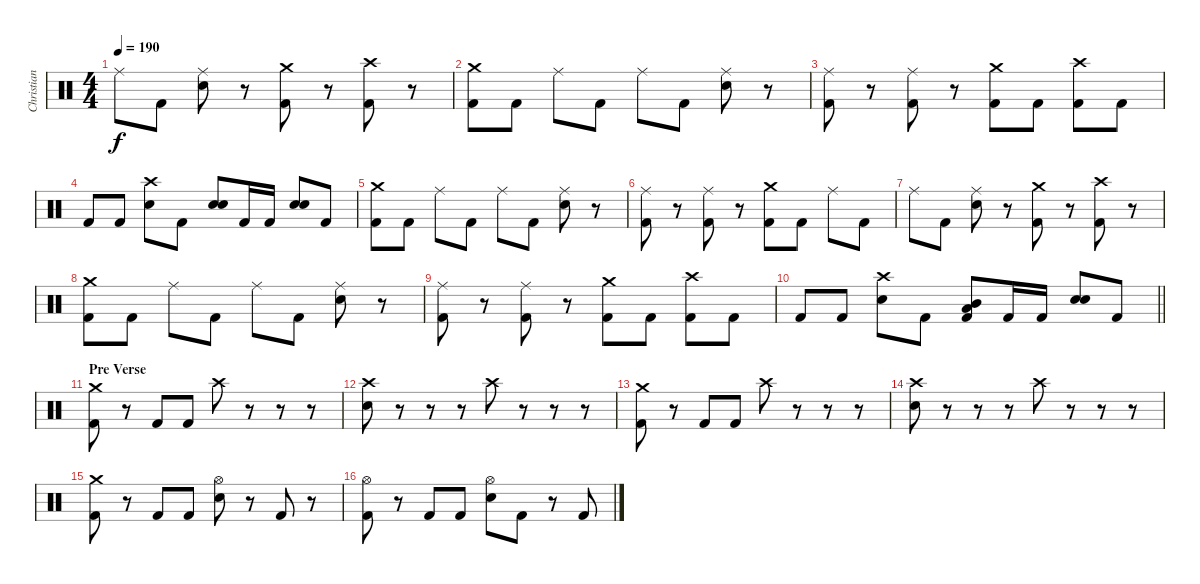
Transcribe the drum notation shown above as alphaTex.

\track ("Christian" "Christian") {instrument percussion}
\staff {score}
\articulation defaults
\ts (4 4)
\tempo 190
\clef neutral
\ks c "Ride (middle)".8{dy f} "Kick (hit) 2".8
("Ride (middle)" "Electric Snare (hit)").8 r.8 ("Crash medium (hit)" "Kick (hit) 2").8 r.8 ("Crash high (hit)" "Kick (hit) 2").8 r.8 |
("Crash medium (hit)" "Kick (hit) 2").8 "Kick (hit) 2".8 "Ride (middle)".8 "Kick (hit) 2".8 "Ride (middle)".8 "Kick (hit) 2".8 ("Ride (middle)" "Electric Snare (hit)").8 r.8 |
("Ride (middle)" "Kick (hit) 2").8 r.8 ("Ride (middle)" "Kick (hit) 2").8 r.8 ("Crash medium (hit)" "Kick (hit) 2").8 "Kick (hit) 2".8 ("Crash high (hit)" "Kick (hit) 2").8 "Kick (hit) 2".8 |
"Kick (hit) 2".8 "Kick (hit) 2".8 ("Crash high (hit)" "Electric Snare (hit)").8 "Kick (hit) 2".8 ("Electric Snare (hit)" "Electric Snare (hit)").8 "Kick (hit) 2".16 "Kick (hit) 2".16 ("Electric Snare (hit)" "Electric Snare (hit)").8 "Kick (hit) 2".8 |
("Crash medium (hit)" "Kick (hit) 2").8 "Kick (hit) 2".8 "Ride (middle)".8 "Kick (hit) 2".8 "Ride (middle)".8 "Kick (hit) 2".8 ("Ride (middle)" "Electric Snare (hit)").8 r.8 |
("Ride (middle)" "Kick (hit) 2").8 r.8 ("Ride (middle)" "Kick (hit) 2").8 r.8 ("Crash medium (hit)" "Kick (hit) 2").8 "Kick (hit) 2".8 "Ride (middle)".8 "Kick (hit) 2".8 |
"Ride (middle)".8 "Kick (hit) 2".8 ("Ride (middle)" "Electric Snare (hit)").8 r.8 ("Crash medium (hit)" "Kick (hit) 2").8 r.8 ("Crash high (hit)" "Kick (hit) 2").8 r.8 |
("Crash medium (hit)" "Kick (hit) 2").8 "Kick (hit) 2".8 "Ride (middle)".8 "Kick (hit) 2".8 "Ride (middle)".8 "Kick (hit) 2".8 ("Ride (middle)" "Electric Snare (hit)").8 r.8 |
("Ride (middle)" "Kick (hit) 2").8 r.8 ("Ride (middle)" "Kick (hit) 2").8 r.8 ("Crash medium (hit)" "Kick (hit) 2").8 "Kick (hit) 2".8 ("Crash high (hit)" "Kick (hit) 2").8 "Kick (hit) 2".8 |
\barLineRight lightlight "Kick (hit) 2".8 "Kick (hit) 2".8
("Crash high (hit)" "Electric Snare (hit)").8 "Kick (hit) 2".8 ("Low Tom (hit)" "Mid Tom (hit)" "Kick (hit) 2").8 "Kick (hit) 2".16 "Kick (hit) 2".16 ("Electric Snare (hit)" "Electric Snare (hit)").8 "Kick (hit) 2".8 |
\section ("" "Pre Verse")
("Crash medium (hit)" "Kick (hit) 2").8 r.8 "Kick (hit) 2".8 "Kick (hit) 2".8 "Crash high (hit)".8 r.8 r.8 r.8 |
("Crash high (hit)" "Electric Snare (hit)").8 r.8 r.8 r.8 "Crash high (hit)".8 r.8 r.8 r.8 |
("Crash medium (hit)" "Kick (hit) 2").8 r.8 "Kick (hit) 2".8 "Kick (hit) 2".8 "Crash high (hit)".8 r.8 r.8 r.8 |
("Crash high (hit)" "Electric Snare (hit)").8 r.8 r.8 r.8 "Crash high (hit)".8 r.8 r.8 r.8 |
("Crash medium (hit)" "Kick (hit) 2").8 r.8 "Kick (hit) 2".8 "Kick (hit) 2".8 ("Hi-Hat (open)" "Electric Snare (hit)").8 r.8 "Kick (hit) 2".8 r.8 |
("Hi-Hat (open)" "Kick (hit) 2").8 r.8 "Kick (hit) 2".8 "Kick (hit) 2".8 ("Hi-Hat (open)" "Electric Snare (hit)").8 "Kick (hit) 2".8 r.8 "Kick (hit) 2".8
